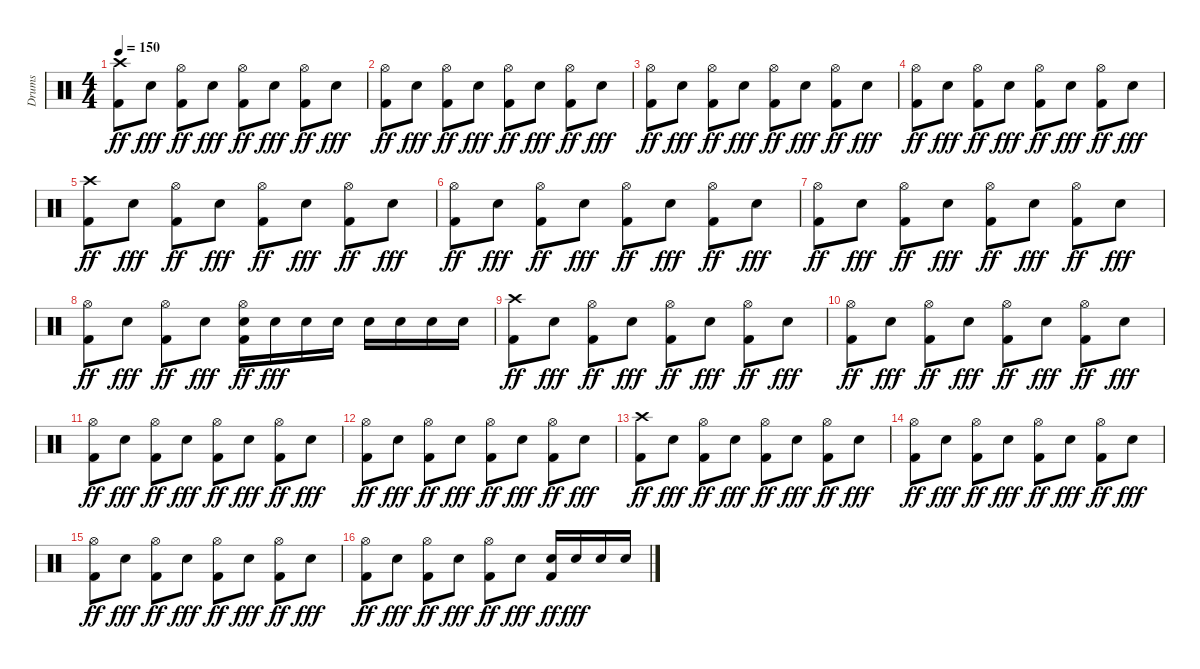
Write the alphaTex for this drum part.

\track ("Drums" "Drums") {instrument percussion}
\staff {score}
\articulation defaults
\ts (4 4)
\tempo 150
\clef neutral
\ks c
("Crash high (hit)" "Kick (hit) 2").8{dy ff} "Snare (hit) 2".8{dy fff} ("Hi-Hat (open)" "Kick (hit) 2").8{dy ff} "Snare (hit) 2".8{dy fff} ("Hi-Hat (open)" "Kick (hit) 2").8{dy ff} "Snare (hit) 2".8{dy fff} ("Hi-Hat (open)" "Kick (hit) 2").8{dy ff} "Snare (hit) 2".8{dy fff} |
("Hi-Hat (open)" "Kick (hit) 2").8{dy ff} "Snare (hit) 2".8{dy fff} ("Hi-Hat (open)" "Kick (hit) 2").8{dy ff} "Snare (hit) 2".8{dy fff} ("Hi-Hat (open)" "Kick (hit) 2").8{dy ff} "Snare (hit) 2".8{dy fff} ("Hi-Hat (open)" "Kick (hit) 2").8{dy ff} "Snare (hit) 2".8{dy fff} |
("Hi-Hat (open)" "Kick (hit) 2").8{dy ff} "Snare (hit) 2".8{dy fff} ("Hi-Hat (open)" "Kick (hit) 2").8{dy ff} "Snare (hit) 2".8{dy fff} ("Hi-Hat (open)" "Kick (hit) 2").8{dy ff} "Snare (hit) 2".8{dy fff} ("Hi-Hat (open)" "Kick (hit) 2").8{dy ff} "Snare (hit) 2".8{dy fff} |
("Hi-Hat (open)" "Kick (hit) 2").8{dy ff} "Snare (hit) 2".8{dy fff} ("Hi-Hat (open)" "Kick (hit) 2").8{dy ff} "Snare (hit) 2".8{dy fff} ("Hi-Hat (open)" "Kick (hit) 2").8{dy ff} "Snare (hit) 2".8{dy fff} ("Hi-Hat (open)" "Kick (hit) 2").8{dy ff} "Snare (hit) 2".8{dy fff} |
("Crash high (hit)" "Kick (hit) 2").8{dy ff} "Snare (hit) 2".8{dy fff} ("Hi-Hat (open)" "Kick (hit) 2").8{dy ff} "Snare (hit) 2".8{dy fff} ("Hi-Hat (open)" "Kick (hit) 2").8{dy ff} "Snare (hit) 2".8{dy fff} ("Hi-Hat (open)" "Kick (hit) 2").8{dy ff} "Snare (hit) 2".8{dy fff} |
("Hi-Hat (open)" "Kick (hit) 2").8{dy ff} "Snare (hit) 2".8{dy fff} ("Hi-Hat (open)" "Kick (hit) 2").8{dy ff} "Snare (hit) 2".8{dy fff} ("Hi-Hat (open)" "Kick (hit) 2").8{dy ff} "Snare (hit) 2".8{dy fff} ("Hi-Hat (open)" "Kick (hit) 2").8{dy ff} "Snare (hit) 2".8{dy fff} |
("Hi-Hat (open)" "Kick (hit) 2").8{dy ff} "Snare (hit) 2".8{dy fff} ("Hi-Hat (open)" "Kick (hit) 2").8{dy ff} "Snare (hit) 2".8{dy fff} ("Hi-Hat (open)" "Kick (hit) 2").8{dy ff} "Snare (hit) 2".8{dy fff} ("Hi-Hat (open)" "Kick (hit) 2").8{dy ff} "Snare (hit) 2".8{dy fff} |
("Hi-Hat (open)" "Kick (hit) 2").8{dy ff} "Snare (hit) 2".8{dy fff} ("Hi-Hat (open)" "Kick (hit) 2").8{dy ff} "Snare (hit) 2".8{dy fff} ("Hi-Hat (open)" "Snare (hit) 2" "Kick (hit) 2").16{dy ff} "Snare (hit) 2".16{dy fff} "Snare (hit) 2".16 "Snare (hit) 2".16 "Snare (hit) 2".16 "Snare (hit) 2".16 "Snare (hit) 2".16 "Snare (hit) 2".16 |
("Crash high (hit)" "Kick (hit) 2").8{dy ff} "Snare (hit) 2".8{dy fff} ("Hi-Hat (open)" "Kick (hit) 2").8{dy ff} "Snare (hit) 2".8{dy fff} ("Hi-Hat (open)" "Kick (hit) 2").8{dy ff} "Snare (hit) 2".8{dy fff} ("Hi-Hat (open)" "Kick (hit) 2").8{dy ff} "Snare (hit) 2".8{dy fff} |
("Hi-Hat (open)" "Kick (hit) 2").8{dy ff} "Snare (hit) 2".8{dy fff} ("Hi-Hat (open)" "Kick (hit) 2").8{dy ff} "Snare (hit) 2".8{dy fff} ("Hi-Hat (open)" "Kick (hit) 2").8{dy ff} "Snare (hit) 2".8{dy fff} ("Hi-Hat (open)" "Kick (hit) 2").8{dy ff} "Snare (hit) 2".8{dy fff} |
("Hi-Hat (open)" "Kick (hit) 2").8{dy ff} "Snare (hit) 2".8{dy fff} ("Hi-Hat (open)" "Kick (hit) 2").8{dy ff} "Snare (hit) 2".8{dy fff} ("Hi-Hat (open)" "Kick (hit) 2").8{dy ff} "Snare (hit) 2".8{dy fff} ("Hi-Hat (open)" "Kick (hit) 2").8{dy ff} "Snare (hit) 2".8{dy fff} |
("Hi-Hat (open)" "Kick (hit) 2").8{dy ff} "Snare (hit) 2".8{dy fff} ("Hi-Hat (open)" "Kick (hit) 2").8{dy ff} "Snare (hit) 2".8{dy fff} ("Hi-Hat (open)" "Kick (hit) 2").8{dy ff} "Snare (hit) 2".8{dy fff} ("Hi-Hat (open)" "Kick (hit) 2").8{dy ff} "Snare (hit) 2".8{dy fff} |
("Crash high (hit)" "Kick (hit) 2").8{dy ff} "Snare (hit) 2".8{dy fff} ("Hi-Hat (open)" "Kick (hit) 2").8{dy ff} "Snare (hit) 2".8{dy fff} ("Hi-Hat (open)" "Kick (hit) 2").8{dy ff} "Snare (hit) 2".8{dy fff} ("Hi-Hat (open)" "Kick (hit) 2").8{dy ff} "Snare (hit) 2".8{dy fff} |
("Hi-Hat (open)" "Kick (hit) 2").8{dy ff} "Snare (hit) 2".8{dy fff} ("Hi-Hat (open)" "Kick (hit) 2").8{dy ff} "Snare (hit) 2".8{dy fff} ("Hi-Hat (open)" "Kick (hit) 2").8{dy ff} "Snare (hit) 2".8{dy fff} ("Hi-Hat (open)" "Kick (hit) 2").8{dy ff} "Snare (hit) 2".8{dy fff} |
("Hi-Hat (open)" "Kick (hit) 2").8{dy ff} "Snare (hit) 2".8{dy fff} ("Hi-Hat (open)" "Kick (hit) 2").8{dy ff} "Snare (hit) 2".8{dy fff} ("Hi-Hat (open)" "Kick (hit) 2").8{dy ff} "Snare (hit) 2".8{dy fff} ("Hi-Hat (open)" "Kick (hit) 2").8{dy ff} "Snare (hit) 2".8{dy fff} |
("Hi-Hat (open)" "Kick (hit) 2").8{dy ff} "Snare (hit) 2".8{dy fff} ("Hi-Hat (open)" "Kick (hit) 2").8{dy ff} "Snare (hit) 2".8{dy fff} ("Hi-Hat (open)" "Kick (hit) 2").8{dy ff} "Snare (hit) 2".8{dy fff} ("Snare (hit) 2" "Kick (hit) 2").16{dy ff} "Snare (hit) 2".16{dy fff} "Snare (hit) 2".16 "Snare (hit) 2".16
